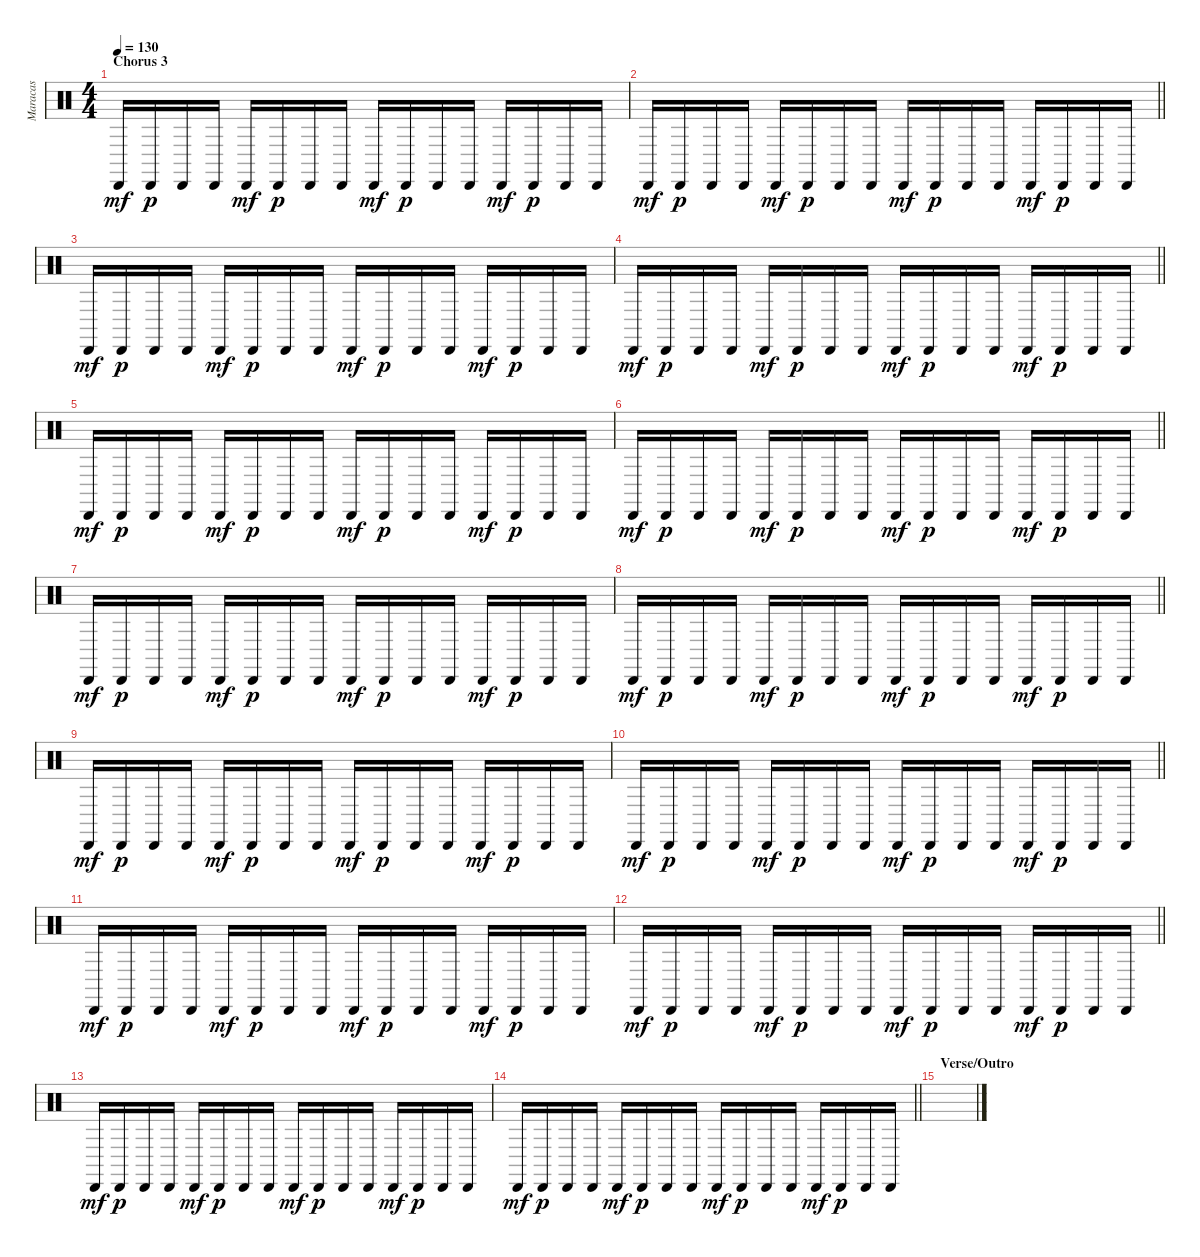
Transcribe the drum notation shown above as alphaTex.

\track ("Maracas" "Maracas") {instrument percussion}
\staff {score}
\articulation defaults
\ts (4 4)
\section ("" "Chorus 3")
\tempo 130
\clef neutral
\ks c "Cabasa (hit)".16{dy mf} "Cabasa (hit)".16{dy p} "Cabasa (hit)".16 "Cabasa (hit)".16 "Cabasa (hit)".16{dy mf} "Cabasa (hit)".16{dy p} "Cabasa (hit)".16 "Cabasa (hit)".16 "Cabasa (hit)".16{dy mf} "Cabasa (hit)".16{dy p} "Cabasa (hit)".16 "Cabasa (hit)".16 "Cabasa (hit)".16{dy mf} "Cabasa (hit)".16{dy p} "Cabasa (hit)".16 "Cabasa (hit)".16
|
\barLineRight lightlight "Cabasa (hit)".16{dy mf} "Cabasa (hit)".16{dy p} "Cabasa (hit)".16 "Cabasa (hit)".16 "Cabasa (hit)".16{dy mf} "Cabasa (hit)".16{dy p} "Cabasa (hit)".16 "Cabasa (hit)".16 "Cabasa (hit)".16{dy mf} "Cabasa (hit)".16{dy p} "Cabasa (hit)".16 "Cabasa (hit)".16 "Cabasa (hit)".16{dy mf} "Cabasa (hit)".16{dy p} "Cabasa (hit)".16 "Cabasa (hit)".16
|
"Cabasa (hit)".16{dy mf} "Cabasa (hit)".16{dy p} "Cabasa (hit)".16 "Cabasa (hit)".16 "Cabasa (hit)".16{dy mf} "Cabasa (hit)".16{dy p} "Cabasa (hit)".16 "Cabasa (hit)".16 "Cabasa (hit)".16{dy mf} "Cabasa (hit)".16{dy p} "Cabasa (hit)".16 "Cabasa (hit)".16 "Cabasa (hit)".16{dy mf} "Cabasa (hit)".16{dy p} "Cabasa (hit)".16 "Cabasa (hit)".16 |
\barLineRight lightlight "Cabasa (hit)".16{dy mf} "Cabasa (hit)".16{dy p} "Cabasa (hit)".16 "Cabasa (hit)".16 "Cabasa (hit)".16{dy mf} "Cabasa (hit)".16{dy p} "Cabasa (hit)".16 "Cabasa (hit)".16 "Cabasa (hit)".16{dy mf} "Cabasa (hit)".16{dy p} "Cabasa (hit)".16 "Cabasa (hit)".16 "Cabasa (hit)".16{dy mf} "Cabasa (hit)".16{dy p} "Cabasa (hit)".16 "Cabasa (hit)".16
|
"Cabasa (hit)".16{dy mf} "Cabasa (hit)".16{dy p} "Cabasa (hit)".16 "Cabasa (hit)".16 "Cabasa (hit)".16{dy mf} "Cabasa (hit)".16{dy p} "Cabasa (hit)".16 "Cabasa (hit)".16 "Cabasa (hit)".16{dy mf} "Cabasa (hit)".16{dy p} "Cabasa (hit)".16 "Cabasa (hit)".16 "Cabasa (hit)".16{dy mf} "Cabasa (hit)".16{dy p} "Cabasa (hit)".16 "Cabasa (hit)".16 |
\barLineRight lightlight "Cabasa (hit)".16{dy mf} "Cabasa (hit)".16{dy p} "Cabasa (hit)".16 "Cabasa (hit)".16 "Cabasa (hit)".16{dy mf} "Cabasa (hit)".16{dy p} "Cabasa (hit)".16 "Cabasa (hit)".16 "Cabasa (hit)".16{dy mf} "Cabasa (hit)".16{dy p} "Cabasa (hit)".16 "Cabasa (hit)".16 "Cabasa (hit)".16{dy mf} "Cabasa (hit)".16{dy p} "Cabasa (hit)".16 "Cabasa (hit)".16
|
"Cabasa (hit)".16{dy mf} "Cabasa (hit)".16{dy p} "Cabasa (hit)".16 "Cabasa (hit)".16 "Cabasa (hit)".16{dy mf} "Cabasa (hit)".16{dy p} "Cabasa (hit)".16 "Cabasa (hit)".16 "Cabasa (hit)".16{dy mf} "Cabasa (hit)".16{dy p} "Cabasa (hit)".16 "Cabasa (hit)".16 "Cabasa (hit)".16{dy mf} "Cabasa (hit)".16{dy p} "Cabasa (hit)".16 "Cabasa (hit)".16 |
\barLineRight lightlight "Cabasa (hit)".16{dy mf} "Cabasa (hit)".16{dy p} "Cabasa (hit)".16 "Cabasa (hit)".16 "Cabasa (hit)".16{dy mf} "Cabasa (hit)".16{dy p} "Cabasa (hit)".16 "Cabasa (hit)".16 "Cabasa (hit)".16{dy mf} "Cabasa (hit)".16{dy p} "Cabasa (hit)".16 "Cabasa (hit)".16 "Cabasa (hit)".16{dy mf} "Cabasa (hit)".16{dy p} "Cabasa (hit)".16 "Cabasa (hit)".16
|
"Cabasa (hit)".16{dy mf} "Cabasa (hit)".16{dy p} "Cabasa (hit)".16 "Cabasa (hit)".16 "Cabasa (hit)".16{dy mf} "Cabasa (hit)".16{dy p} "Cabasa (hit)".16 "Cabasa (hit)".16 "Cabasa (hit)".16{dy mf} "Cabasa (hit)".16{dy p} "Cabasa (hit)".16 "Cabasa (hit)".16 "Cabasa (hit)".16{dy mf} "Cabasa (hit)".16{dy p} "Cabasa (hit)".16 "Cabasa (hit)".16 |
\barLineRight lightlight "Cabasa (hit)".16{dy mf} "Cabasa (hit)".16{dy p} "Cabasa (hit)".16 "Cabasa (hit)".16 "Cabasa (hit)".16{dy mf} "Cabasa (hit)".16{dy p} "Cabasa (hit)".16 "Cabasa (hit)".16 "Cabasa (hit)".16{dy mf} "Cabasa (hit)".16{dy p} "Cabasa (hit)".16 "Cabasa (hit)".16 "Cabasa (hit)".16{dy mf} "Cabasa (hit)".16{dy p} "Cabasa (hit)".16 "Cabasa (hit)".16
|
"Cabasa (hit)".16{dy mf} "Cabasa (hit)".16{dy p} "Cabasa (hit)".16 "Cabasa (hit)".16 "Cabasa (hit)".16{dy mf} "Cabasa (hit)".16{dy p} "Cabasa (hit)".16 "Cabasa (hit)".16 "Cabasa (hit)".16{dy mf} "Cabasa (hit)".16{dy p} "Cabasa (hit)".16 "Cabasa (hit)".16 "Cabasa (hit)".16{dy mf} "Cabasa (hit)".16{dy p} "Cabasa (hit)".16 "Cabasa (hit)".16 |
\barLineRight lightlight "Cabasa (hit)".16{dy mf} "Cabasa (hit)".16{dy p} "Cabasa (hit)".16 "Cabasa (hit)".16 "Cabasa (hit)".16{dy mf} "Cabasa (hit)".16{dy p} "Cabasa (hit)".16 "Cabasa (hit)".16 "Cabasa (hit)".16{dy mf} "Cabasa (hit)".16{dy p} "Cabasa (hit)".16 "Cabasa (hit)".16 "Cabasa (hit)".16{dy mf} "Cabasa (hit)".16{dy p} "Cabasa (hit)".16 "Cabasa (hit)".16
|
"Cabasa (hit)".16{dy mf} "Cabasa (hit)".16{dy p} "Cabasa (hit)".16 "Cabasa (hit)".16 "Cabasa (hit)".16{dy mf} "Cabasa (hit)".16{dy p} "Cabasa (hit)".16 "Cabasa (hit)".16 "Cabasa (hit)".16{dy mf} "Cabasa (hit)".16{dy p} "Cabasa (hit)".16 "Cabasa (hit)".16 "Cabasa (hit)".16{dy mf} "Cabasa (hit)".16{dy p} "Cabasa (hit)".16 "Cabasa (hit)".16 |
\barLineRight lightlight "Cabasa (hit)".16{dy mf} "Cabasa (hit)".16{dy p} "Cabasa (hit)".16 "Cabasa (hit)".16 "Cabasa (hit)".16{dy mf} "Cabasa (hit)".16{dy p} "Cabasa (hit)".16 "Cabasa (hit)".16 "Cabasa (hit)".16{dy mf} "Cabasa (hit)".16{dy p} "Cabasa (hit)".16 "Cabasa (hit)".16 "Cabasa (hit)".16{dy mf} "Cabasa (hit)".16{dy p} "Cabasa (hit)".16 "Cabasa (hit)".16
|
\section ("" "Verse/Outro")
